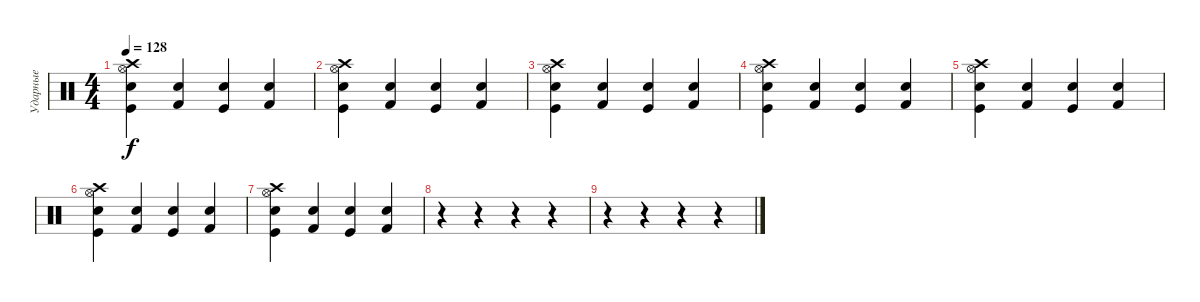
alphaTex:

\track ("Ударные" "Ударные") {instrument percussion}
\staff {score}
\articulation defaults
\ts (4 4)
\tempo 128
\clef neutral
\ks c
("Kick (hit)" "Electric Snare (hit)" "Crash high (hit)" "Hi-Hat (open)").4{dy f} ("Kick (hit) 2" "Snare (hit) 2").4 ("Kick (hit)" "Electric Snare (hit)").4 ("Kick (hit) 2" "Snare (hit) 2").4 |
("Kick (hit)" "Electric Snare (hit)" "Crash high (hit)" "Hi-Hat (open)").4 ("Kick (hit) 2" "Snare (hit) 2").4 ("Kick (hit)" "Electric Snare (hit)").4 ("Kick (hit) 2" "Snare (hit) 2").4 |
("Kick (hit)" "Electric Snare (hit)" "Crash high (hit)" "Hi-Hat (open)").4 ("Kick (hit) 2" "Snare (hit) 2").4 ("Kick (hit)" "Electric Snare (hit)").4 ("Kick (hit) 2" "Snare (hit) 2").4 |
("Kick (hit)" "Electric Snare (hit)" "Crash high (hit)" "Hi-Hat (open)").4 ("Kick (hit) 2" "Snare (hit) 2").4 ("Kick (hit)" "Electric Snare (hit)").4 ("Kick (hit) 2" "Snare (hit) 2").4 |
("Kick (hit)" "Electric Snare (hit)" "Crash high (hit)" "Hi-Hat (open)").4 ("Kick (hit) 2" "Snare (hit) 2").4 ("Kick (hit)" "Electric Snare (hit)").4 ("Kick (hit) 2" "Snare (hit) 2").4 |
("Kick (hit)" "Electric Snare (hit)" "Crash high (hit)" "Hi-Hat (open)").4 ("Kick (hit) 2" "Snare (hit) 2").4 ("Kick (hit)" "Electric Snare (hit)").4 ("Kick (hit) 2" "Snare (hit) 2").4 |
("Kick (hit)" "Electric Snare (hit)" "Crash high (hit)" "Hi-Hat (open)").4 ("Kick (hit) 2" "Snare (hit) 2").4 ("Kick (hit)" "Electric Snare (hit)").4 ("Kick (hit) 2" "Snare (hit) 2").4 |
r.4 r.4 r.4 r.4 |
r.4 r.4 r.4 r.4
